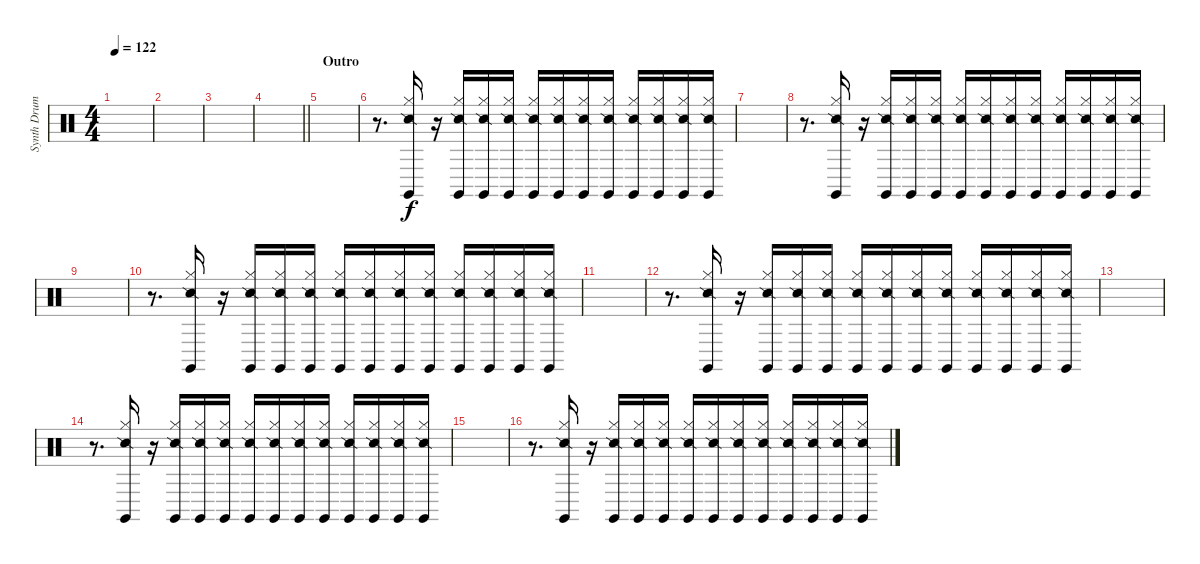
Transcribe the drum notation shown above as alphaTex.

\track ("Synth Drums" "Synth Drum") {instrument percussion}
\staff {score}
\articulation defaults
\ts (4 4)
\tempo 122
\clef neutral
\ks c
|
|
|
\barLineRight lightlight
|
\section ("" "Outro")
|
r.8{d} ("Hi-Hat (closed)" "Snare (side stick) 2" "Claves (hit)").16{dy f} r.16 ("Hi-Hat (closed)" "Snare (side stick) 2" "Claves (hit)").16 ("Hi-Hat (closed)" "Snare (side stick) 2" "Claves (hit)").16 ("Hi-Hat (closed)" "Snare (side stick) 2" "Claves (hit)").16 ("Hi-Hat (closed)" "Snare (side stick) 2" "Claves (hit)").16 ("Hi-Hat (closed)" "Snare (side stick) 2" "Claves (hit)").16 ("Hi-Hat (closed)" "Snare (side stick) 2" "Claves (hit)").16 ("Hi-Hat (closed)" "Snare (side stick) 2" "Claves (hit)").16 ("Hi-Hat (closed)" "Snare (side stick) 2" "Claves (hit)").16 ("Hi-Hat (closed)" "Snare (side stick) 2" "Claves (hit)").16 ("Hi-Hat (closed)" "Snare (side stick) 2" "Claves (hit)").16 ("Hi-Hat (closed)" "Snare (side stick) 2" "Claves (hit)").16 |
|
r.8{d} ("Hi-Hat (closed)" "Snare (side stick) 2" "Claves (hit)").16 r.16 ("Hi-Hat (closed)" "Snare (side stick) 2" "Claves (hit)").16 ("Hi-Hat (closed)" "Snare (side stick) 2" "Claves (hit)").16 ("Hi-Hat (closed)" "Snare (side stick) 2" "Claves (hit)").16 ("Hi-Hat (closed)" "Snare (side stick) 2" "Claves (hit)").16 ("Hi-Hat (closed)" "Snare (side stick) 2" "Claves (hit)").16 ("Hi-Hat (closed)" "Snare (side stick) 2" "Claves (hit)").16 ("Hi-Hat (closed)" "Snare (side stick) 2" "Claves (hit)").16 ("Hi-Hat (closed)" "Snare (side stick) 2" "Claves (hit)").16 ("Hi-Hat (closed)" "Snare (side stick) 2" "Claves (hit)").16 ("Hi-Hat (closed)" "Snare (side stick) 2" "Claves (hit)").16 ("Hi-Hat (closed)" "Snare (side stick) 2" "Claves (hit)").16 |
|
r.8{d} ("Hi-Hat (closed)" "Snare (side stick) 2" "Claves (hit)").16 r.16 ("Hi-Hat (closed)" "Snare (side stick) 2" "Claves (hit)").16 ("Hi-Hat (closed)" "Snare (side stick) 2" "Claves (hit)").16 ("Hi-Hat (closed)" "Snare (side stick) 2" "Claves (hit)").16 ("Hi-Hat (closed)" "Snare (side stick) 2" "Claves (hit)").16 ("Hi-Hat (closed)" "Snare (side stick) 2" "Claves (hit)").16 ("Hi-Hat (closed)" "Snare (side stick) 2" "Claves (hit)").16 ("Hi-Hat (closed)" "Snare (side stick) 2" "Claves (hit)").16 ("Hi-Hat (closed)" "Snare (side stick) 2" "Claves (hit)").16 ("Hi-Hat (closed)" "Snare (side stick) 2" "Claves (hit)").16 ("Hi-Hat (closed)" "Snare (side stick) 2" "Claves (hit)").16 ("Hi-Hat (closed)" "Snare (side stick) 2" "Claves (hit)").16 |
|
r.8{d} ("Hi-Hat (closed)" "Snare (side stick) 2" "Claves (hit)").16 r.16 ("Hi-Hat (closed)" "Snare (side stick) 2" "Claves (hit)").16 ("Hi-Hat (closed)" "Snare (side stick) 2" "Claves (hit)").16 ("Hi-Hat (closed)" "Snare (side stick) 2" "Claves (hit)").16 ("Hi-Hat (closed)" "Snare (side stick) 2" "Claves (hit)").16 ("Hi-Hat (closed)" "Snare (side stick) 2" "Claves (hit)").16 ("Hi-Hat (closed)" "Snare (side stick) 2" "Claves (hit)").16 ("Hi-Hat (closed)" "Snare (side stick) 2" "Claves (hit)").16 ("Hi-Hat (closed)" "Snare (side stick) 2" "Claves (hit)").16 ("Hi-Hat (closed)" "Snare (side stick) 2" "Claves (hit)").16 ("Hi-Hat (closed)" "Snare (side stick) 2" "Claves (hit)").16 ("Hi-Hat (closed)" "Snare (side stick) 2" "Claves (hit)").16 |
|
r.8{d} ("Hi-Hat (closed)" "Snare (side stick) 2" "Claves (hit)").16 r.16 ("Hi-Hat (closed)" "Snare (side stick) 2" "Claves (hit)").16 ("Hi-Hat (closed)" "Snare (side stick) 2" "Claves (hit)").16 ("Hi-Hat (closed)" "Snare (side stick) 2" "Claves (hit)").16 ("Hi-Hat (closed)" "Snare (side stick) 2" "Claves (hit)").16 ("Hi-Hat (closed)" "Snare (side stick) 2" "Claves (hit)").16 ("Hi-Hat (closed)" "Snare (side stick) 2" "Claves (hit)").16 ("Hi-Hat (closed)" "Snare (side stick) 2" "Claves (hit)").16 ("Hi-Hat (closed)" "Snare (side stick) 2" "Claves (hit)").16 ("Hi-Hat (closed)" "Snare (side stick) 2" "Claves (hit)").16 ("Hi-Hat (closed)" "Snare (side stick) 2" "Claves (hit)").16 ("Hi-Hat (closed)" "Snare (side stick) 2" "Claves (hit)").16 |
|
r.8{d} ("Hi-Hat (closed)" "Snare (side stick) 2" "Claves (hit)").16 r.16 ("Hi-Hat (closed)" "Snare (side stick) 2" "Claves (hit)").16 ("Hi-Hat (closed)" "Snare (side stick) 2" "Claves (hit)").16 ("Hi-Hat (closed)" "Snare (side stick) 2" "Claves (hit)").16 ("Hi-Hat (closed)" "Snare (side stick) 2" "Claves (hit)").16 ("Hi-Hat (closed)" "Snare (side stick) 2" "Claves (hit)").16 ("Hi-Hat (closed)" "Snare (side stick) 2" "Claves (hit)").16 ("Hi-Hat (closed)" "Snare (side stick) 2" "Claves (hit)").16 ("Hi-Hat (closed)" "Snare (side stick) 2" "Claves (hit)").16 ("Hi-Hat (closed)" "Snare (side stick) 2" "Claves (hit)").16 ("Hi-Hat (closed)" "Snare (side stick) 2" "Claves (hit)").16 ("Hi-Hat (closed)" "Snare (side stick) 2" "Claves (hit)").16
